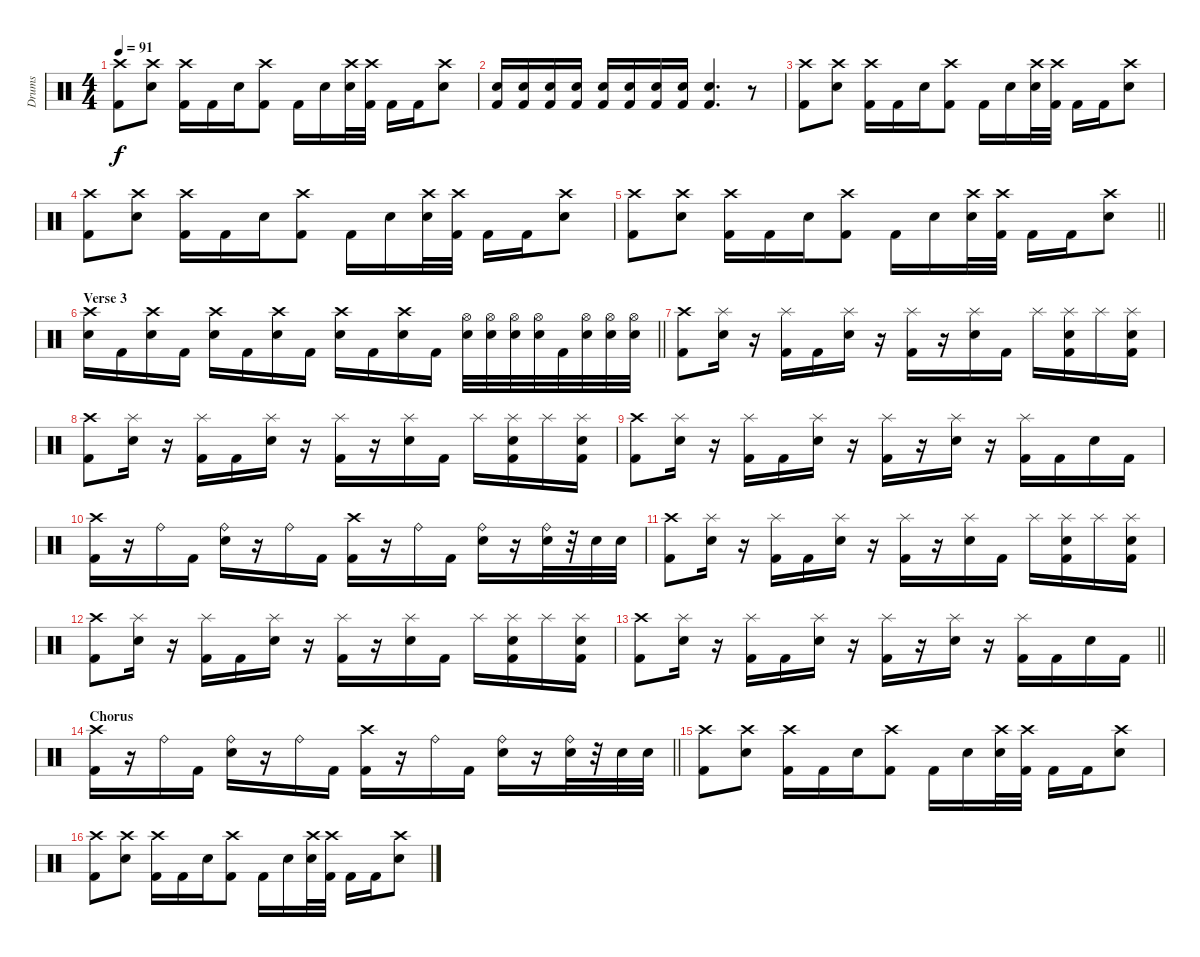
\track ("Drums" "Drums") {instrument percussion}
\staff {score}
\articulation defaults
\ts (4 4)
\tempo 91
\clef neutral
\ks c
("Crash high (hit)" "Kick (hit) 2").8{dy f} ("Crash high (hit)" "Electric Snare (hit)").8 ("Crash high (hit)" "Kick (hit) 2").16 "Kick (hit) 2".16 "Electric Snare (hit)".16 ("Crash high (hit)" "Kick (hit) 2").8 "Kick (hit) 2".16 "Electric Snare (hit)".16 ("Crash high (hit)" "Electric Snare (hit)").32 ("Crash high (hit)" "Kick (hit) 2").32 "Kick (hit) 2".16 "Kick (hit) 2".16 ("Crash high (hit)" "Electric Snare (hit)").8 |
("Electric Snare (hit)" "Kick (hit) 2").16 ("Electric Snare (hit)" "Kick (hit) 2").16 ("Electric Snare (hit)" "Kick (hit) 2").16 ("Electric Snare (hit)" "Kick (hit) 2").16 ("Electric Snare (hit)" "Kick (hit) 2").16 ("Electric Snare (hit)" "Kick (hit) 2").16 ("Electric Snare (hit)" "Kick (hit) 2").16 ("Electric Snare (hit)" "Kick (hit) 2").16 ("Electric Snare (hit)" "Kick (hit) 2").4{d} r.8 |
("Crash high (hit)" "Kick (hit) 2").8 ("Crash high (hit)" "Electric Snare (hit)").8 ("Crash high (hit)" "Kick (hit) 2").16 "Kick (hit) 2".16 "Electric Snare (hit)".16 ("Crash high (hit)" "Kick (hit) 2").8 "Kick (hit) 2".16 "Electric Snare (hit)".16 ("Crash high (hit)" "Electric Snare (hit)").32 ("Crash high (hit)" "Kick (hit) 2").32 "Kick (hit) 2".16 "Kick (hit) 2".16 ("Crash high (hit)" "Electric Snare (hit)").8 |
("Crash high (hit)" "Kick (hit) 2").8 ("Crash high (hit)" "Electric Snare (hit)").8 ("Crash high (hit)" "Kick (hit) 2").16 "Kick (hit) 2".16 "Electric Snare (hit)".16 ("Crash high (hit)" "Kick (hit) 2").8 "Kick (hit) 2".16 "Electric Snare (hit)".16 ("Crash high (hit)" "Electric Snare (hit)").32 ("Crash high (hit)" "Kick (hit) 2").32 "Kick (hit) 2".16 "Kick (hit) 2".16 ("Crash high (hit)" "Electric Snare (hit)").8 |
\barLineRight lightlight
("Crash high (hit)" "Kick (hit) 2").8 ("Crash high (hit)" "Electric Snare (hit)").8 ("Crash high (hit)" "Kick (hit) 2").16 "Kick (hit) 2".16 "Electric Snare (hit)".16 ("Crash high (hit)" "Kick (hit) 2").8 "Kick (hit) 2".16 "Electric Snare (hit)".16 ("Crash high (hit)" "Electric Snare (hit)").32 ("Crash high (hit)" "Kick (hit) 2").32 "Kick (hit) 2".16 "Kick (hit) 2".16 ("Crash high (hit)" "Electric Snare (hit)").8 |
\section ("" "Verse 3")
\barLineRight lightlight
("Crash high (hit)" "Electric Snare (hit)").16 "Kick (hit) 2".16 ("Crash high (hit)" "Electric Snare (hit)").16 "Kick (hit) 2".16 ("Crash high (hit)" "Electric Snare (hit)").16 "Kick (hit) 2".16 ("Crash high (hit)" "Electric Snare (hit)").16 "Kick (hit) 2".16 ("Crash high (hit)" "Electric Snare (hit)").16 "Kick (hit) 2".16 ("Crash high (hit)" "Electric Snare (hit)").16 "Kick (hit) 2".16 ("Hi-Hat (open)" "Electric Snare (hit)").32 ("Hi-Hat (open)" "Electric Snare (hit)").32 ("Hi-Hat (open)" "Electric Snare (hit)").32 ("Hi-Hat (open)" "Electric Snare (hit)").32 "Kick (hit) 2".32 ("Hi-Hat (open)" "Electric Snare (hit)").32 ("Hi-Hat (open)" "Electric Snare (hit)").32 ("Hi-Hat (open)" "Electric Snare (hit)").32 |
("Crash high (hit)" "Kick (hit) 2").8 ("Splash (hit)" "Electric Snare (hit)").16 r.16 ("Splash (hit)" "Kick (hit) 2").16 "Kick (hit) 2".16 ("Splash (hit)" "Electric Snare (hit)").16 r.16 ("Splash (hit)" "Kick (hit) 2").16 r.16 ("Splash (hit)" "Electric Snare (hit)").16 "Kick (hit) 2".16 "Splash (hit)".16 ("Splash (hit)" "Electric Snare (hit)" "Kick (hit) 2").16 "Splash (hit)".16 ("Splash (hit)" "Electric Snare (hit)" "Kick (hit) 2").16 |
("Crash high (hit)" "Kick (hit) 2").8 ("Splash (hit)" "Electric Snare (hit)").16 r.16 ("Splash (hit)" "Kick (hit) 2").16 "Kick (hit) 2".16 ("Splash (hit)" "Electric Snare (hit)").16 r.16 ("Splash (hit)" "Kick (hit) 2").16 r.16 ("Splash (hit)" "Electric Snare (hit)").16 "Kick (hit) 2".16 "Splash (hit)".16 ("Splash (hit)" "Electric Snare (hit)" "Kick (hit) 2").16 "Splash (hit)".16 ("Splash (hit)" "Electric Snare (hit)" "Kick (hit) 2").16 |
("Crash high (hit)" "Kick (hit) 2").8 ("Splash (hit)" "Electric Snare (hit)").16 r.16 ("Splash (hit)" "Kick (hit) 2").16 "Kick (hit) 2".16 ("Splash (hit)" "Electric Snare (hit)").16 r.16 ("Splash (hit)" "Kick (hit) 2").16 r.16 ("Splash (hit)" "Electric Snare (hit)").16 r.16 ("Splash (hit)" "Kick (hit) 2").16 "Kick (hit) 2".16 "Electric Snare (hit)".16 "Kick (hit) 2".16 |
("Crash high (hit)" "Kick (hit) 2").16 r.16 "Ride (bell)".16 "Kick (hit) 2".16 ("Ride (bell)" "Electric Snare (hit)").16 r.16 "Ride (bell)".16 "Kick (hit) 2".16 ("Crash high (hit)" "Kick (hit) 2").16 r.16 "Ride (bell)".16 "Kick (hit) 2".16 ("Ride (bell)" "Electric Snare (hit)").16 r.16 ("Ride (bell)" "Electric Snare (hit)").32 r.32 "Electric Snare (hit)".32 "Electric Snare (hit)".32 |
("Crash high (hit)" "Kick (hit) 2").8 ("Splash (hit)" "Electric Snare (hit)").16 r.16 ("Splash (hit)" "Kick (hit) 2").16 "Kick (hit) 2".16 ("Splash (hit)" "Electric Snare (hit)").16 r.16 ("Splash (hit)" "Kick (hit) 2").16 r.16 ("Splash (hit)" "Electric Snare (hit)").16 "Kick (hit) 2".16 "Splash (hit)".16 ("Splash (hit)" "Electric Snare (hit)" "Kick (hit) 2").16 "Splash (hit)".16 ("Splash (hit)" "Electric Snare (hit)" "Kick (hit) 2").16 |
("Crash high (hit)" "Kick (hit) 2").8 ("Splash (hit)" "Electric Snare (hit)").16 r.16 ("Splash (hit)" "Kick (hit) 2").16 "Kick (hit) 2".16 ("Splash (hit)" "Electric Snare (hit)").16 r.16 ("Splash (hit)" "Kick (hit) 2").16 r.16 ("Splash (hit)" "Electric Snare (hit)").16 "Kick (hit) 2".16 "Splash (hit)".16 ("Splash (hit)" "Electric Snare (hit)" "Kick (hit) 2").16 "Splash (hit)".16 ("Splash (hit)" "Electric Snare (hit)" "Kick (hit) 2").16 |
\barLineRight lightlight
("Crash high (hit)" "Kick (hit) 2").8 ("Splash (hit)" "Electric Snare (hit)").16 r.16 ("Splash (hit)" "Kick (hit) 2").16 "Kick (hit) 2".16 ("Splash (hit)" "Electric Snare (hit)").16 r.16 ("Splash (hit)" "Kick (hit) 2").16 r.16 ("Splash (hit)" "Electric Snare (hit)").16 r.16 ("Splash (hit)" "Kick (hit) 2").16 "Kick (hit) 2".16 "Electric Snare (hit)".16 "Kick (hit) 2".16 |
\section ("" "Chorus")
\barLineRight lightlight
("Crash high (hit)" "Kick (hit) 2").16 r.16 "Ride (bell)".16 "Kick (hit) 2".16 ("Ride (bell)" "Electric Snare (hit)").16 r.16 "Ride (bell)".16 "Kick (hit) 2".16 ("Crash high (hit)" "Kick (hit) 2").16 r.16 "Ride (bell)".16 "Kick (hit) 2".16 ("Ride (bell)" "Electric Snare (hit)").16 r.16 ("Ride (bell)" "Electric Snare (hit)").32 r.32 "Electric Snare (hit)".32 "Electric Snare (hit)".32 |
("Crash high (hit)" "Kick (hit) 2").8 ("Crash high (hit)" "Electric Snare (hit)").8 ("Crash high (hit)" "Kick (hit) 2").16 "Kick (hit) 2".16 "Electric Snare (hit)".16 ("Crash high (hit)" "Kick (hit) 2").8 "Kick (hit) 2".16 "Electric Snare (hit)".16 ("Crash high (hit)" "Electric Snare (hit)").32 ("Crash high (hit)" "Kick (hit) 2").32 "Kick (hit) 2".16 "Kick (hit) 2".16 ("Crash high (hit)" "Electric Snare (hit)").8 |
("Crash high (hit)" "Kick (hit) 2").8 ("Crash high (hit)" "Electric Snare (hit)").8 ("Crash high (hit)" "Kick (hit) 2").16 "Kick (hit) 2".16 "Electric Snare (hit)".16 ("Crash high (hit)" "Kick (hit) 2").8 "Kick (hit) 2".16 "Electric Snare (hit)".16 ("Crash high (hit)" "Electric Snare (hit)").32 ("Crash high (hit)" "Kick (hit) 2").32 "Kick (hit) 2".16 "Kick (hit) 2".16 ("Crash high (hit)" "Electric Snare (hit)").8
